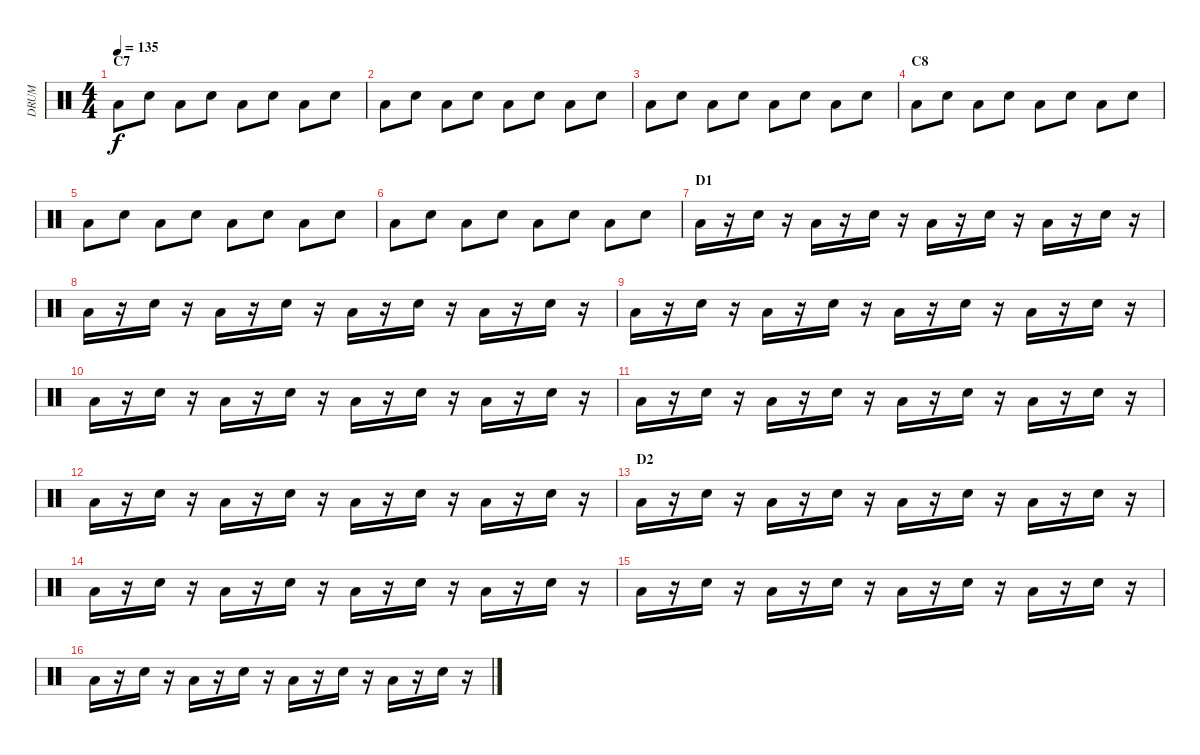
\track ("DRUM" "DRUM") {instrument percussion}
\staff {score}
\articulation defaults
\ts (4 4)
\section ("" "C7")
\tempo 135
\clef neutral
\ks c "Low Floor Tom (hit)".8{dy f} "Electric Snare (hit)".8 "Low Floor Tom (hit)".8 "Electric Snare (hit)".8 "Low Floor Tom (hit)".8 "Electric Snare (hit)".8 "Low Floor Tom (hit)".8 "Electric Snare (hit)".8
|
"Low Floor Tom (hit)".8 "Electric Snare (hit)".8 "Low Floor Tom (hit)".8 "Electric Snare (hit)".8 "Low Floor Tom (hit)".8 "Electric Snare (hit)".8 "Low Floor Tom (hit)".8 "Electric Snare (hit)".8 |
"Low Floor Tom (hit)".8 "Electric Snare (hit)".8 "Low Floor Tom (hit)".8 "Electric Snare (hit)".8 "Low Floor Tom (hit)".8 "Electric Snare (hit)".8 "Low Floor Tom (hit)".8 "Electric Snare (hit)".8 |
\section ("" "C8")
"Low Floor Tom (hit)".8 "Electric Snare (hit)".8 "Low Floor Tom (hit)".8 "Electric Snare (hit)".8 "Low Floor Tom (hit)".8 "Electric Snare (hit)".8 "Low Floor Tom (hit)".8 "Electric Snare (hit)".8 |
"Low Floor Tom (hit)".8 "Electric Snare (hit)".8 "Low Floor Tom (hit)".8 "Electric Snare (hit)".8 "Low Floor Tom (hit)".8 "Electric Snare (hit)".8 "Low Floor Tom (hit)".8 "Electric Snare (hit)".8 |
"Low Floor Tom (hit)".8 "Electric Snare (hit)".8 "Low Floor Tom (hit)".8 "Electric Snare (hit)".8 "Low Floor Tom (hit)".8 "Electric Snare (hit)".8 "Low Floor Tom (hit)".8 "Electric Snare (hit)".8 |
\section ("" "D1")
"Low Floor Tom (hit)".16 r.16 "Electric Snare (hit)".16 r.16 "Low Floor Tom (hit)".16 r.16 "Electric Snare (hit)".16 r.16 "Low Floor Tom (hit)".16 r.16 "Electric Snare (hit)".16 r.16 "Low Floor Tom (hit)".16 r.16 "Electric Snare (hit)".16 r.16 |
"Low Floor Tom (hit)".16 r.16 "Electric Snare (hit)".16 r.16 "Low Floor Tom (hit)".16 r.16 "Electric Snare (hit)".16 r.16 "Low Floor Tom (hit)".16 r.16 "Electric Snare (hit)".16 r.16 "Low Floor Tom (hit)".16 r.16 "Electric Snare (hit)".16 r.16 |
"Low Floor Tom (hit)".16 r.16 "Electric Snare (hit)".16 r.16 "Low Floor Tom (hit)".16 r.16 "Electric Snare (hit)".16 r.16 "Low Floor Tom (hit)".16 r.16 "Electric Snare (hit)".16 r.16 "Low Floor Tom (hit)".16 r.16 "Electric Snare (hit)".16 r.16 |
"Low Floor Tom (hit)".16 r.16 "Electric Snare (hit)".16 r.16 "Low Floor Tom (hit)".16 r.16 "Electric Snare (hit)".16 r.16 "Low Floor Tom (hit)".16 r.16 "Electric Snare (hit)".16 r.16 "Low Floor Tom (hit)".16 r.16 "Electric Snare (hit)".16 r.16 |
"Low Floor Tom (hit)".16 r.16 "Electric Snare (hit)".16 r.16 "Low Floor Tom (hit)".16 r.16 "Electric Snare (hit)".16 r.16 "Low Floor Tom (hit)".16 r.16 "Electric Snare (hit)".16 r.16 "Low Floor Tom (hit)".16 r.16 "Electric Snare (hit)".16 r.16 |
"Low Floor Tom (hit)".16 r.16 "Electric Snare (hit)".16 r.16 "Low Floor Tom (hit)".16 r.16 "Electric Snare (hit)".16 r.16 "Low Floor Tom (hit)".16 r.16 "Electric Snare (hit)".16 r.16 "Low Floor Tom (hit)".16 r.16 "Electric Snare (hit)".16 r.16 |
\section ("" "D2")
"Low Floor Tom (hit)".16 r.16 "Electric Snare (hit)".16 r.16 "Low Floor Tom (hit)".16 r.16 "Electric Snare (hit)".16 r.16 "Low Floor Tom (hit)".16 r.16 "Electric Snare (hit)".16 r.16 "Low Floor Tom (hit)".16 r.16 "Electric Snare (hit)".16 r.16 |
"Low Floor Tom (hit)".16 r.16 "Electric Snare (hit)".16 r.16 "Low Floor Tom (hit)".16 r.16 "Electric Snare (hit)".16 r.16 "Low Floor Tom (hit)".16 r.16 "Electric Snare (hit)".16 r.16 "Low Floor Tom (hit)".16 r.16 "Electric Snare (hit)".16 r.16 |
"Low Floor Tom (hit)".16 r.16 "Electric Snare (hit)".16 r.16 "Low Floor Tom (hit)".16 r.16 "Electric Snare (hit)".16 r.16 "Low Floor Tom (hit)".16 r.16 "Electric Snare (hit)".16 r.16 "Low Floor Tom (hit)".16 r.16 "Electric Snare (hit)".16 r.16 |
"Low Floor Tom (hit)".16 r.16 "Electric Snare (hit)".16 r.16 "Low Floor Tom (hit)".16 r.16 "Electric Snare (hit)".16 r.16 "Low Floor Tom (hit)".16 r.16 "Electric Snare (hit)".16 r.16 "Low Floor Tom (hit)".16 r.16 "Electric Snare (hit)".16 r.16
